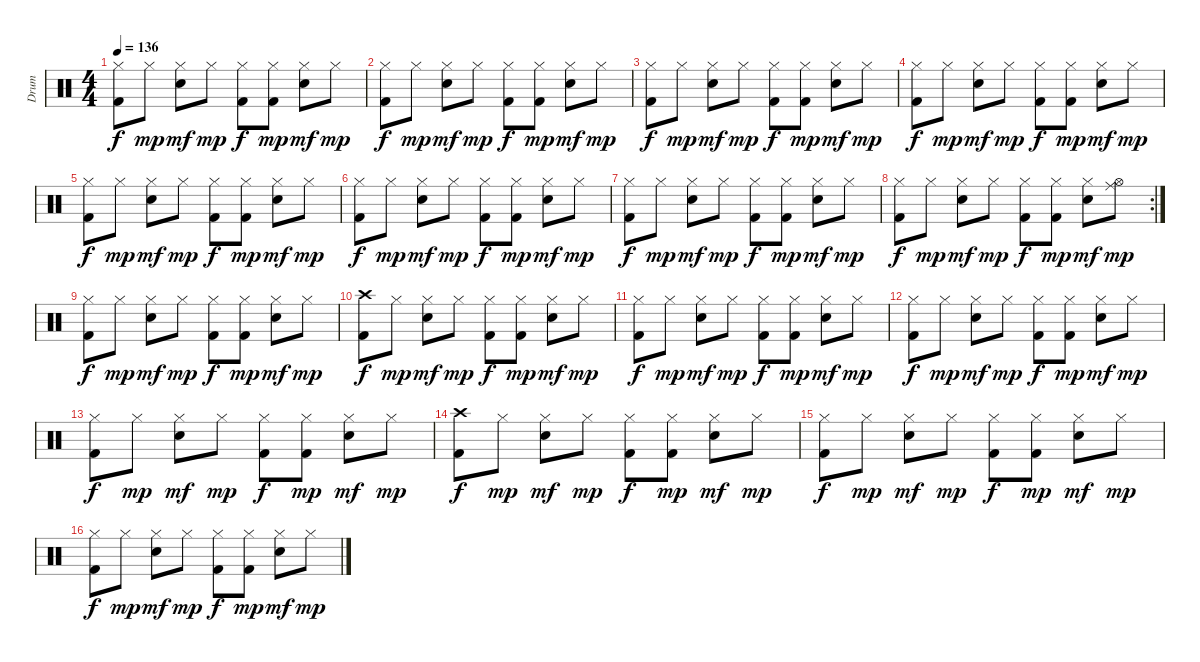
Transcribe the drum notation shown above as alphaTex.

\track ("Drum" "Drum") {instrument percussion}
\staff {score}
\articulation defaults
\ts (4 4)
\tempo 136
\clef neutral
\ks c
("Hi-Hat (closed)" "Kick (hit) 2").8{dy f} "Hi-Hat (closed)".8{dy mp} ("Hi-Hat (closed)" "Snare (hit) 2").8{dy mf} "Hi-Hat (closed)".8{dy mp} ("Hi-Hat (closed)" "Kick (hit) 2").8{dy f} ("Hi-Hat (closed)" "Kick (hit) 2").8{dy mp} ("Hi-Hat (closed)" "Snare (hit) 2").8{dy mf} "Hi-Hat (closed)".8{dy mp} |
("Hi-Hat (closed)" "Kick (hit) 2").8{dy f} "Hi-Hat (closed)".8{dy mp} ("Hi-Hat (closed)" "Snare (hit) 2").8{dy mf} "Hi-Hat (closed)".8{dy mp} ("Hi-Hat (closed)" "Kick (hit) 2").8{dy f} ("Hi-Hat (closed)" "Kick (hit) 2").8{dy mp} ("Hi-Hat (closed)" "Snare (hit) 2").8{dy mf} "Hi-Hat (closed)".8{dy mp} |
("Hi-Hat (closed)" "Kick (hit) 2").8{dy f} "Hi-Hat (closed)".8{dy mp} ("Hi-Hat (closed)" "Snare (hit) 2").8{dy mf} "Hi-Hat (closed)".8{dy mp} ("Hi-Hat (closed)" "Kick (hit) 2").8{dy f} ("Hi-Hat (closed)" "Kick (hit) 2").8{dy mp} ("Hi-Hat (closed)" "Snare (hit) 2").8{dy mf} "Hi-Hat (closed)".8{dy mp} |
("Hi-Hat (closed)" "Kick (hit) 2").8{dy f} "Hi-Hat (closed)".8{dy mp} ("Hi-Hat (closed)" "Snare (hit) 2").8{dy mf} "Hi-Hat (closed)".8{dy mp} ("Hi-Hat (closed)" "Kick (hit) 2").8{dy f} ("Hi-Hat (closed)" "Kick (hit) 2").8{dy mp} ("Hi-Hat (closed)" "Snare (hit) 2").8{dy mf} "Hi-Hat (closed)".8{dy mp} |
("Hi-Hat (closed)" "Kick (hit) 2").8{dy f} "Hi-Hat (closed)".8{dy mp} ("Hi-Hat (closed)" "Snare (hit) 2").8{dy mf} "Hi-Hat (closed)".8{dy mp} ("Hi-Hat (closed)" "Kick (hit) 2").8{dy f} ("Hi-Hat (closed)" "Kick (hit) 2").8{dy mp} ("Hi-Hat (closed)" "Snare (hit) 2").8{dy mf} "Hi-Hat (closed)".8{dy mp} |
("Hi-Hat (closed)" "Kick (hit) 2").8{dy f} "Hi-Hat (closed)".8{dy mp} ("Hi-Hat (closed)" "Snare (hit) 2").8{dy mf} "Hi-Hat (closed)".8{dy mp} ("Hi-Hat (closed)" "Kick (hit) 2").8{dy f} ("Hi-Hat (closed)" "Kick (hit) 2").8{dy mp} ("Hi-Hat (closed)" "Snare (hit) 2").8{dy mf} "Hi-Hat (closed)".8{dy mp} |
("Hi-Hat (closed)" "Kick (hit) 2").8{dy f} "Hi-Hat (closed)".8{dy mp} ("Hi-Hat (closed)" "Snare (hit) 2").8{dy mf} "Hi-Hat (closed)".8{dy mp} ("Hi-Hat (closed)" "Kick (hit) 2").8{dy f} ("Hi-Hat (closed)" "Kick (hit) 2").8{dy mp} ("Hi-Hat (closed)" "Snare (hit) 2").8{dy mf} "Hi-Hat (closed)".8{dy mp} |
\rc 2
("Hi-Hat (closed)" "Kick (hit) 2").8{dy f} "Hi-Hat (closed)".8{dy mp} ("Hi-Hat (closed)" "Snare (hit) 2").8{dy mf} "Hi-Hat (closed)".8{dy mp} ("Hi-Hat (closed)" "Kick (hit) 2").8{dy f} ("Hi-Hat (closed)" "Kick (hit) 2").8{dy mp} ("Hi-Hat (closed)" "Snare (hit) 2").8{dy mf} ("Hi-Hat (open)" "Ride (middle)").8{dy mp} |
("Hi-Hat (closed)" "Kick (hit) 2").8{dy f} "Hi-Hat (closed)".8{dy mp} ("Hi-Hat (closed)" "Snare (hit) 2").8{dy mf} "Hi-Hat (closed)".8{dy mp} ("Hi-Hat (closed)" "Kick (hit) 2").8{dy f} ("Hi-Hat (closed)" "Kick (hit) 2").8{dy mp} ("Hi-Hat (closed)" "Snare (hit) 2").8{dy mf} "Hi-Hat (closed)".8{dy mp} |
("Crash high (hit)" "Kick (hit) 2").8{dy f} "Hi-Hat (closed)".8{dy mp} ("Hi-Hat (closed)" "Snare (hit) 2").8{dy mf} "Hi-Hat (closed)".8{dy mp} ("Hi-Hat (closed)" "Kick (hit) 2").8{dy f} ("Hi-Hat (closed)" "Kick (hit) 2").8{dy mp} ("Hi-Hat (closed)" "Snare (hit) 2").8{dy mf} "Hi-Hat (closed)".8{dy mp} |
("Hi-Hat (closed)" "Kick (hit) 2").8{dy f} "Hi-Hat (closed)".8{dy mp} ("Hi-Hat (closed)" "Snare (hit) 2").8{dy mf} "Hi-Hat (closed)".8{dy mp} ("Hi-Hat (closed)" "Kick (hit) 2").8{dy f} ("Hi-Hat (closed)" "Kick (hit) 2").8{dy mp} ("Hi-Hat (closed)" "Snare (hit) 2").8{dy mf} "Hi-Hat (closed)".8{dy mp} |
("Hi-Hat (closed)" "Kick (hit) 2").8{dy f} "Hi-Hat (closed)".8{dy mp} ("Hi-Hat (closed)" "Snare (hit) 2").8{dy mf} "Hi-Hat (closed)".8{dy mp} ("Hi-Hat (closed)" "Kick (hit) 2").8{dy f} ("Hi-Hat (closed)" "Kick (hit) 2").8{dy mp} ("Hi-Hat (closed)" "Snare (hit) 2").8{dy mf} "Hi-Hat (closed)".8{dy mp} |
("Hi-Hat (closed)" "Kick (hit) 2").8{dy f} "Hi-Hat (closed)".8{dy mp} ("Hi-Hat (closed)" "Snare (hit) 2").8{dy mf} "Hi-Hat (closed)".8{dy mp} ("Hi-Hat (closed)" "Kick (hit) 2").8{dy f} ("Hi-Hat (closed)" "Kick (hit) 2").8{dy mp} ("Hi-Hat (closed)" "Snare (hit) 2").8{dy mf} "Hi-Hat (closed)".8{dy mp} |
("Crash high (hit)" "Kick (hit) 2").8{dy f} "Hi-Hat (closed)".8{dy mp} ("Hi-Hat (closed)" "Snare (hit) 2").8{dy mf} "Hi-Hat (closed)".8{dy mp} ("Hi-Hat (closed)" "Kick (hit) 2").8{dy f} ("Hi-Hat (closed)" "Kick (hit) 2").8{dy mp} ("Hi-Hat (closed)" "Snare (hit) 2").8{dy mf} "Hi-Hat (closed)".8{dy mp} |
("Hi-Hat (closed)" "Kick (hit) 2").8{dy f} "Hi-Hat (closed)".8{dy mp} ("Hi-Hat (closed)" "Snare (hit) 2").8{dy mf} "Hi-Hat (closed)".8{dy mp} ("Hi-Hat (closed)" "Kick (hit) 2").8{dy f} ("Hi-Hat (closed)" "Kick (hit) 2").8{dy mp} ("Hi-Hat (closed)" "Snare (hit) 2").8{dy mf} "Hi-Hat (closed)".8{dy mp} |
("Hi-Hat (closed)" "Kick (hit) 2").8{dy f} "Hi-Hat (closed)".8{dy mp} ("Hi-Hat (closed)" "Snare (hit) 2").8{dy mf} "Hi-Hat (closed)".8{dy mp} ("Hi-Hat (closed)" "Kick (hit) 2").8{dy f} ("Hi-Hat (closed)" "Kick (hit) 2").8{dy mp} ("Hi-Hat (closed)" "Snare (hit) 2").8{dy mf} "Hi-Hat (closed)".8{dy mp}
